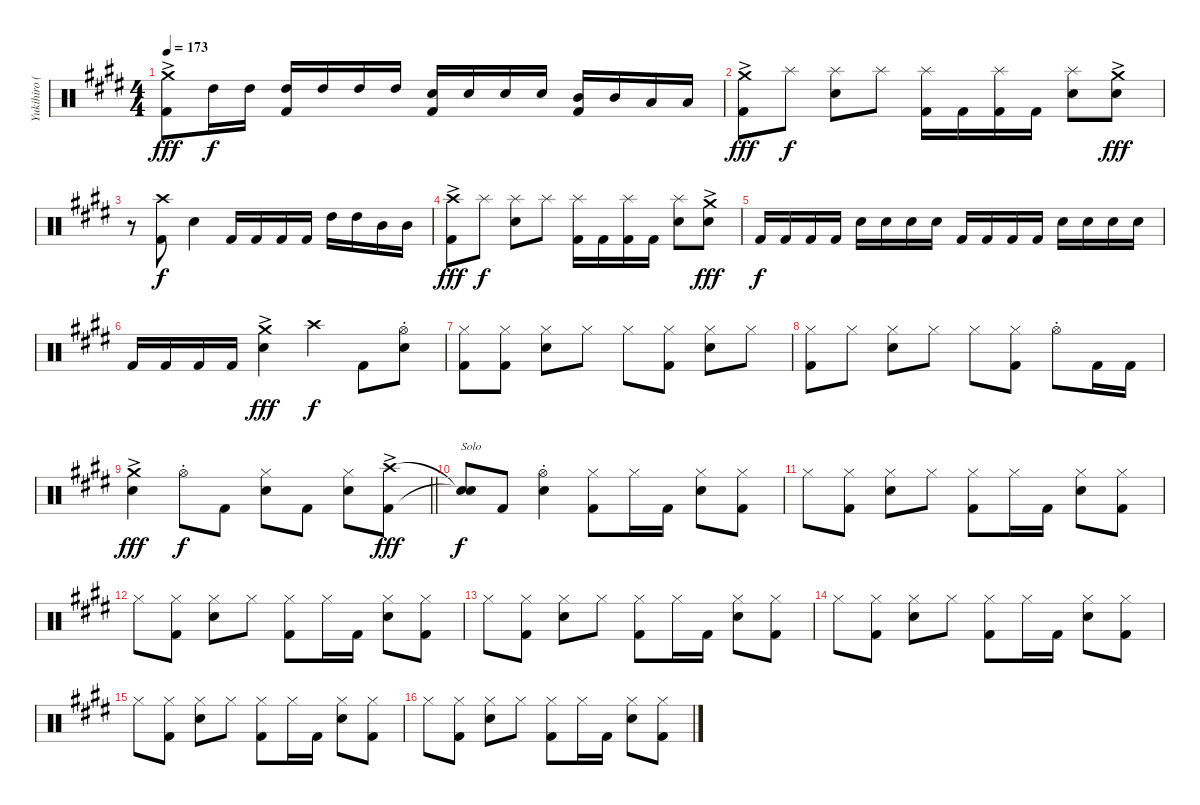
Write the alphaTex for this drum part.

\track ("Yukihiro (Drums)" "Yukihiro (") {instrument percussion}
\staff {score}
\articulation defaults
\ts (4 4)
\tempo 173
\clef neutral
\ks e
("Crash medium (hit)"{ac} "Kick (hit) 2").8{dy fff} "High Tom (hit)".16{dy f} "High Tom (hit)".16 ("High Tom (hit)" "Kick (hit) 2").16 "High Tom (hit)".16 "High Tom (hit)".16 "High Tom (hit)".16 ("Electric Snare (hit)" "Kick (hit) 2").16 "Electric Snare (hit)".16 "Electric Snare (hit)".16 "Electric Snare (hit)".16 ("Mid Tom (hit)" "Kick (hit) 2").16 "Mid Tom (hit)".16 "Low Tom (hit)".16 "Low Tom (hit)".16 |
("Crash medium (hit)"{ac} "Kick (hit) 2").8{dy fff} "Splash (hit)".8{dy f} ("Splash (hit)" "Electric Snare (hit)").8 "Splash (hit)".8 ("Splash (hit)" "Kick (hit) 2").16 "Kick (hit) 2".16 ("Splash (hit)" "Kick (hit) 2").16 "Kick (hit) 2".16 ("Splash (hit)" "Electric Snare (hit)").8 ("Crash medium (hit)"{ac} "Electric Snare (hit)").8{dy fff} |
r.8 ("Crash high (hit)" "Kick (hit) 2").8{dy f} "Electric Snare (hit)".4 "Kick (hit) 2".16 "Kick (hit) 2".16 "Kick (hit) 2".16 "Kick (hit) 2".16 "High Tom (hit)".16 "High Tom (hit)".16 "Mid Tom (hit)".16 "Mid Tom (hit)".16 |
("Crash high (hit)"{ac} "Kick (hit) 2").8{dy fff} "Splash (hit)".8{dy f} ("Splash (hit)" "Electric Snare (hit)").8 "Splash (hit)".8 ("Splash (hit)" "Kick (hit) 2").16 "Kick (hit) 2".16 ("Splash (hit)" "Kick (hit) 2").16 "Kick (hit) 2".16 ("Splash (hit)" "Electric Snare (hit)").8 ("Crash medium (hit)"{ac} "Electric Snare (hit)").8{dy fff} |
"Kick (hit) 2".16{dy f} "Kick (hit) 2".16 "Kick (hit) 2".16 "Kick (hit) 2".16 "Electric Snare (hit)".16 "Electric Snare (hit)".16 "Electric Snare (hit)".16 "Electric Snare (hit)".16 "Kick (hit) 2".16 "Kick (hit) 2".16 "Kick (hit) 2".16 "Kick (hit) 2".16 "Electric Snare (hit)".16 "Electric Snare (hit)".16 "Electric Snare (hit)".16 "Electric Snare (hit)".16 |
"Kick (hit) 2".16 "Kick (hit) 2".16 "Kick (hit) 2".16 "Kick (hit) 2".16 ("Crash medium (hit)"{ac} "Electric Snare (hit)").4{dy fff} "Crash high (hit)".4{dy f} "Kick (hit) 2".8 ("Hi-Hat (open)"{st} "Electric Snare (hit)").8 |
("Hi-Hat (closed)" "Kick (hit) 2").8 ("Hi-Hat (closed)" "Kick (hit) 2").8 ("Hi-Hat (closed)" "Electric Snare (hit)").8 "Hi-Hat (closed)".8 "Hi-Hat (closed)".8 ("Hi-Hat (closed)" "Kick (hit) 2").8 ("Hi-Hat (closed)" "Electric Snare (hit)").8 "Hi-Hat (closed)".8 |
("Hi-Hat (closed)" "Kick (hit) 2").8 "Hi-Hat (closed)".8 ("Hi-Hat (closed)" "Electric Snare (hit)").8 "Hi-Hat (closed)".8 "Hi-Hat (closed)".8 ("Hi-Hat (closed)" "Kick (hit) 2").8 "Hi-Hat (open)"{st}.8 "Kick (hit) 2".16 "Kick (hit) 2".16 |
\barLineRight lightlight
("Crash medium (hit)"{ac} "Electric Snare (hit)").4{dy fff} "Hi-Hat (open)"{st}.8{dy f} "Kick (hit) 2".8 ("Hi-Hat (closed)" "Electric Snare (hit)").8 "Kick (hit) 2".8 ("Hi-Hat (closed)" "Electric Snare (hit)").8 ("Crash high (hit)"{ac} "Kick (hit) 2").8{dy fff} |
("Snare (hit)"{t} "Snare (hit)"{t}).8{txt "Solo" dy f} "Kick (hit) 2".8 ("Hi-Hat (open)"{st} "Electric Snare (hit)").4 ("Hi-Hat (closed)" "Kick (hit) 2").8 "Hi-Hat (closed)".16 "Kick (hit) 2".16 ("Hi-Hat (closed)" "Electric Snare (hit)").8 ("Hi-Hat (closed)" "Kick (hit) 2").8 |
"Hi-Hat (closed)".8 ("Hi-Hat (closed)" "Kick (hit) 2").8 ("Hi-Hat (closed)" "Electric Snare (hit)").8 "Hi-Hat (closed)".8 ("Hi-Hat (closed)" "Kick (hit) 2").8 "Hi-Hat (closed)".16 "Kick (hit) 2".16 ("Hi-Hat (closed)" "Electric Snare (hit)").8 ("Hi-Hat (closed)" "Kick (hit) 2").8 |
"Hi-Hat (closed)".8 ("Hi-Hat (closed)" "Kick (hit) 2").8 ("Hi-Hat (closed)" "Electric Snare (hit)").8 "Hi-Hat (closed)".8 ("Hi-Hat (closed)" "Kick (hit) 2").8 "Hi-Hat (closed)".16 "Kick (hit) 2".16 ("Hi-Hat (closed)" "Electric Snare (hit)").8 ("Hi-Hat (closed)" "Kick (hit) 2").8 |
"Hi-Hat (closed)".8 ("Hi-Hat (closed)" "Kick (hit) 2").8 ("Hi-Hat (closed)" "Electric Snare (hit)").8 "Hi-Hat (closed)".8 ("Hi-Hat (closed)" "Kick (hit) 2").8 "Hi-Hat (closed)".16 "Kick (hit) 2".16 ("Hi-Hat (closed)" "Electric Snare (hit)").8 ("Hi-Hat (closed)" "Kick (hit) 2").8 |
"Hi-Hat (closed)".8 ("Hi-Hat (closed)" "Kick (hit) 2").8 ("Hi-Hat (closed)" "Electric Snare (hit)").8 "Hi-Hat (closed)".8 ("Hi-Hat (closed)" "Kick (hit) 2").8 "Hi-Hat (closed)".16 "Kick (hit) 2".16 ("Hi-Hat (closed)" "Electric Snare (hit)").8 ("Hi-Hat (closed)" "Kick (hit) 2").8 |
"Hi-Hat (closed)".8 ("Hi-Hat (closed)" "Kick (hit) 2").8 ("Hi-Hat (closed)" "Electric Snare (hit)").8 "Hi-Hat (closed)".8 ("Hi-Hat (closed)" "Kick (hit) 2").8 "Hi-Hat (closed)".16 "Kick (hit) 2".16 ("Hi-Hat (closed)" "Electric Snare (hit)").8 ("Hi-Hat (closed)" "Kick (hit) 2").8 |
"Hi-Hat (closed)".8 ("Hi-Hat (closed)" "Kick (hit) 2").8 ("Hi-Hat (closed)" "Electric Snare (hit)").8 "Hi-Hat (closed)".8 ("Hi-Hat (closed)" "Kick (hit) 2").8 "Hi-Hat (closed)".16 "Kick (hit) 2".16 ("Hi-Hat (closed)" "Electric Snare (hit)").8 ("Hi-Hat (closed)" "Kick (hit) 2").8
